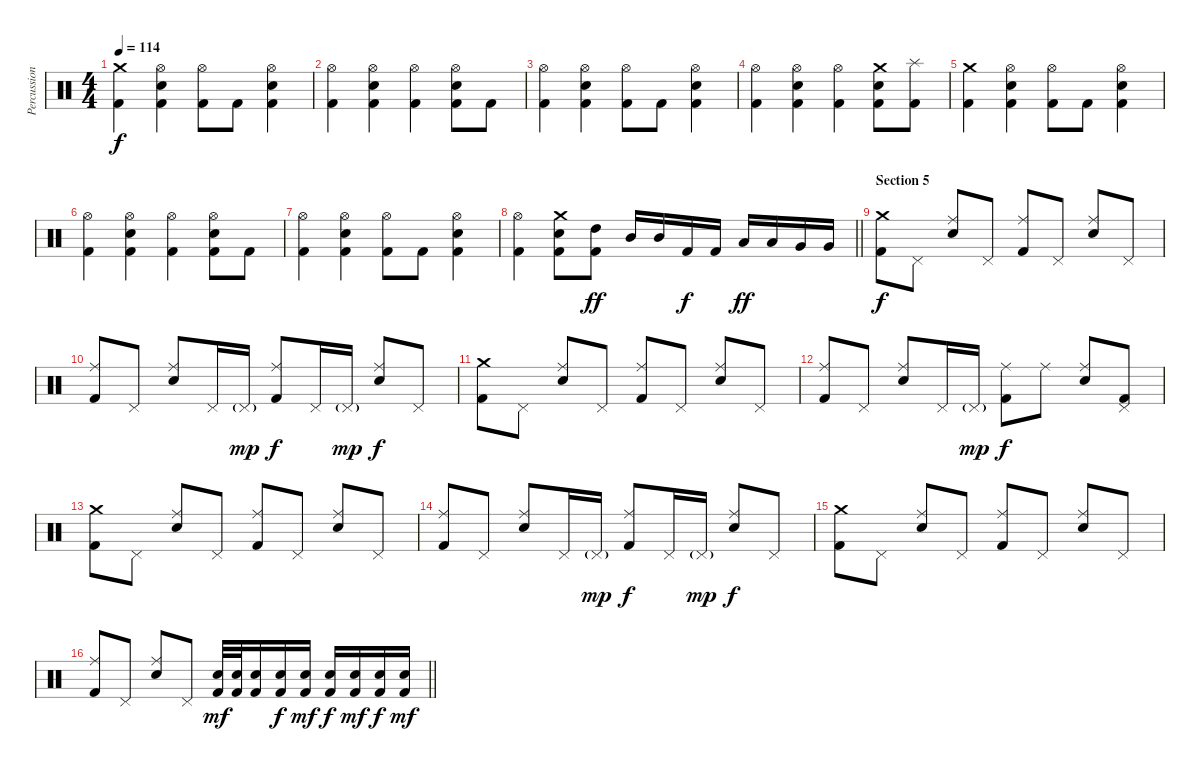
\track ("Percussion" "Percussion") {instrument percussion}
\staff {score}
\articulation defaults
\ts (4 4)
\tempo 114
\clef neutral
\ks c
("Crash medium (hit)" "Kick (hit) 2").4{dy f} ("Snare (hit) 2" "Hi-Hat (open)" "Kick (hit) 2").4 ("Hi-Hat (open)" "Kick (hit) 2").8 "Kick (hit) 2".8 ("Snare (hit) 2" "Hi-Hat (open)" "Kick (hit) 2").4 |
("Hi-Hat (open)" "Kick (hit) 2").4 ("Snare (hit) 2" "Hi-Hat (open)" "Kick (hit) 2").4 ("Hi-Hat (open)" "Kick (hit) 2").4 ("Snare (hit) 2" "Hi-Hat (open)" "Kick (hit) 2").8 "Kick (hit) 2".8 |
("Hi-Hat (open)" "Kick (hit) 2").4 ("Snare (hit) 2" "Hi-Hat (open)" "Kick (hit) 2").4 ("Hi-Hat (open)" "Kick (hit) 2").8 "Kick (hit) 2".8 ("Snare (hit) 2" "Hi-Hat (open)" "Kick (hit) 2").4 |
("Hi-Hat (open)" "Kick (hit) 2").4 ("Snare (hit) 2" "Hi-Hat (open)" "Kick (hit) 2").4 ("Hi-Hat (open)" "Kick (hit) 2").4 ("Crash medium (hit)" "Snare (hit) 2" "Kick (hit) 2").8 ("Splash (hit)" "Kick (hit) 2").8 |
("Crash medium (hit)" "Kick (hit) 2").4 ("Snare (hit) 2" "Hi-Hat (open)" "Kick (hit) 2").4 ("Hi-Hat (open)" "Kick (hit) 2").8 "Kick (hit) 2".8 ("Snare (hit) 2" "Hi-Hat (open)" "Kick (hit) 2").4 |
("Hi-Hat (open)" "Kick (hit) 2").4 ("Snare (hit) 2" "Hi-Hat (open)" "Kick (hit) 2").4 ("Hi-Hat (open)" "Kick (hit) 2").4 ("Snare (hit) 2" "Hi-Hat (open)" "Kick (hit) 2").8 "Kick (hit) 2".8 |
("Hi-Hat (open)" "Kick (hit) 2").4 ("Snare (hit) 2" "Hi-Hat (open)" "Kick (hit) 2").4 ("Hi-Hat (open)" "Kick (hit) 2").8 "Kick (hit) 2".8 ("Snare (hit) 2" "Hi-Hat (open)" "Kick (hit) 2").4 |
\barLineRight lightlight
("Hi-Hat (open)" "Kick (hit) 2").4 ("Crash medium (hit)" "Snare (hit) 2" "Kick (hit) 2").8 ("High Tom (hit)" "Kick (hit) 2").8{dy ff} "Mid Tom (hit)".16 "Mid Tom (hit)".16 "Kick (hit) 2".16{dy f} "Kick (hit) 2".16 "Low Tom (hit)".16{dy ff} "Low Tom (hit)".16 "Very Low Tom (hit)".16 "Very Low Tom (hit)".16 |
\section ("" "Section 5")
("Crash medium (hit)" "Kick (hit) 2").8{dy f} "Pedal Hi-Hat (hit)".8 ("Snare (hit) 2" "Ride (middle)").8 "Pedal Hi-Hat (hit)".8 ("Ride (middle)" "Kick (hit) 2").8 "Pedal Hi-Hat (hit)".8 ("Snare (hit) 2" "Ride (middle)").8 "Pedal Hi-Hat (hit)".8 |
("Ride (middle)" "Kick (hit) 2").8 "Pedal Hi-Hat (hit)".8 ("Snare (hit) 2" "Ride (middle)").8 "Pedal Hi-Hat (hit)".16 "Pedal Hi-Hat (hit)"{g}.16{dy mp} ("Ride (middle)" "Kick (hit) 2").8{dy f} "Pedal Hi-Hat (hit)".16 "Pedal Hi-Hat (hit)"{g}.16{dy mp} ("Snare (hit) 2" "Ride (middle)").8{dy f} "Pedal Hi-Hat (hit)".8 |
("Crash medium (hit)" "Kick (hit) 2").8 "Pedal Hi-Hat (hit)".8 ("Snare (hit) 2" "Ride (middle)").8 "Pedal Hi-Hat (hit)".8 ("Ride (middle)" "Kick (hit) 2").8 "Pedal Hi-Hat (hit)".8 ("Snare (hit) 2" "Ride (middle)").8 "Pedal Hi-Hat (hit)".8 |
("Ride (middle)" "Kick (hit) 2").8 "Pedal Hi-Hat (hit)".8 ("Snare (hit) 2" "Ride (middle)").8 "Pedal Hi-Hat (hit)".16 "Pedal Hi-Hat (hit)"{g}.16{dy mp} ("Ride (middle)" "Kick (hit) 2").8{dy f} "Ride (middle)".8 ("Snare (hit) 2" "Ride (middle)").8 ("Pedal Hi-Hat (hit)" "Kick (hit) 2").8 |
("Crash medium (hit)" "Kick (hit) 2").8 "Pedal Hi-Hat (hit)".8 ("Snare (hit) 2" "Ride (middle)").8 "Pedal Hi-Hat (hit)".8 ("Ride (middle)" "Kick (hit) 2").8 "Pedal Hi-Hat (hit)".8 ("Snare (hit) 2" "Ride (middle)").8 "Pedal Hi-Hat (hit)".8 |
("Ride (middle)" "Kick (hit) 2").8 "Pedal Hi-Hat (hit)".8 ("Snare (hit) 2" "Ride (middle)").8 "Pedal Hi-Hat (hit)".16 "Pedal Hi-Hat (hit)"{g}.16{dy mp} ("Ride (middle)" "Kick (hit) 2").8{dy f} "Pedal Hi-Hat (hit)".16 "Pedal Hi-Hat (hit)"{g}.16{dy mp} ("Snare (hit) 2" "Ride (middle)").8{dy f} "Pedal Hi-Hat (hit)".8 |
("Crash medium (hit)" "Kick (hit) 2").8 "Pedal Hi-Hat (hit)".8 ("Snare (hit) 2" "Ride (middle)").8 "Pedal Hi-Hat (hit)".8 ("Ride (middle)" "Kick (hit) 2").8 "Pedal Hi-Hat (hit)".8 ("Snare (hit) 2" "Ride (middle)").8 "Pedal Hi-Hat (hit)".8 |
\barLineRight lightlight
("Ride (middle)" "Kick (hit) 2").8 "Pedal Hi-Hat (hit)".8 ("Snare (hit) 2" "Ride (middle)").8 "Pedal Hi-Hat (hit)".8 ("Snare (hit) 2" "Kick (hit) 2").32{dy mf} ("Snare (hit) 2" "Kick (hit) 2").32 ("Snare (hit) 2" "Kick (hit) 2").16 ("Snare (hit) 2" "Kick (hit) 2").16{dy f} ("Snare (hit) 2" "Kick (hit) 2").16{dy mf} ("Snare (hit) 2" "Kick (hit) 2").16{dy f} ("Snare (hit) 2" "Kick (hit) 2").16{dy mf} ("Snare (hit) 2" "Kick (hit) 2").16{dy f} ("Snare (hit) 2" "Kick (hit) 2").16{dy mf}
